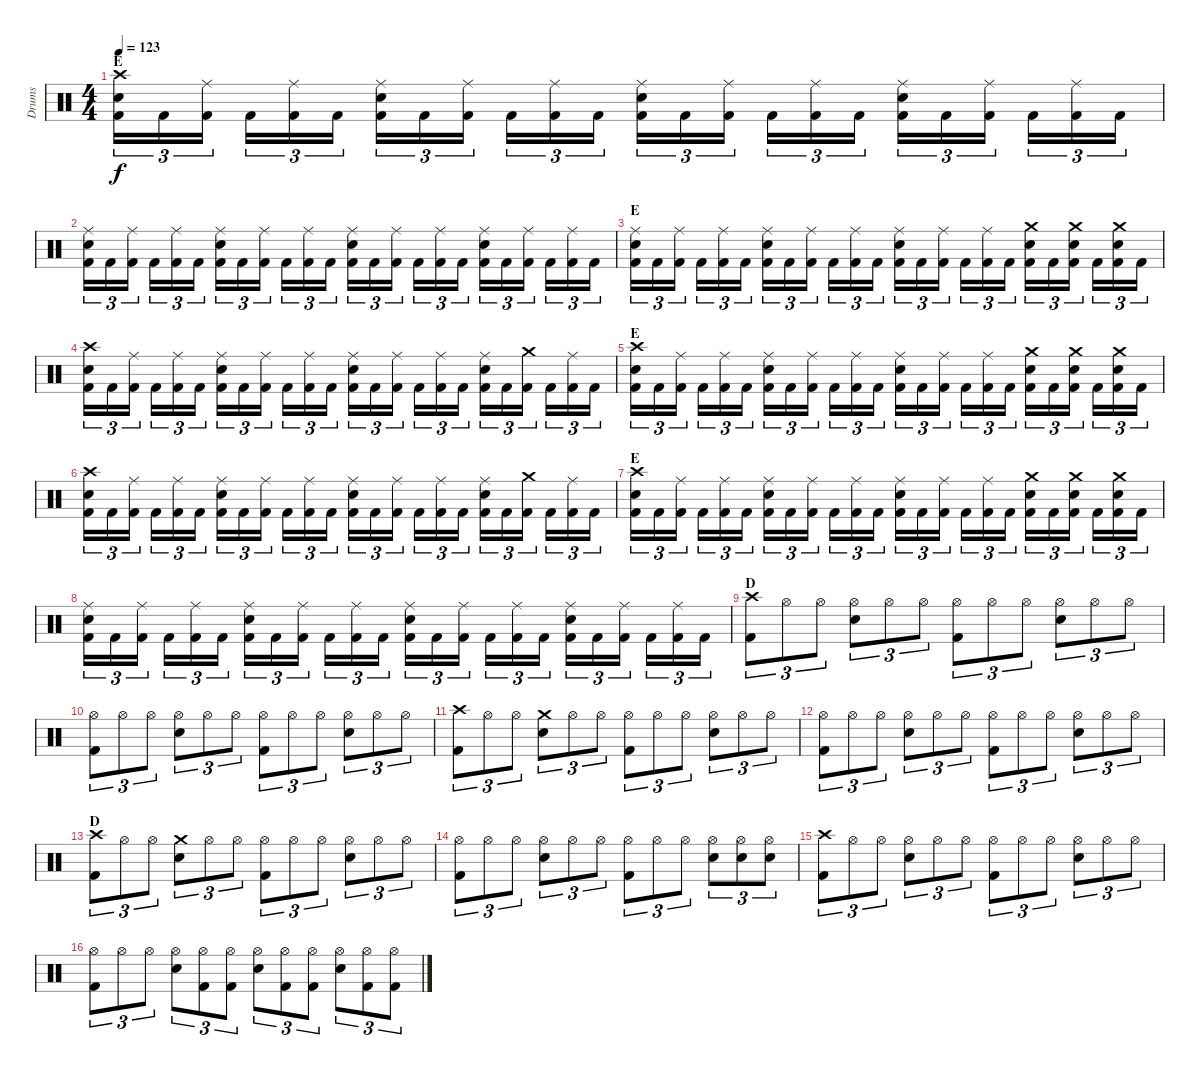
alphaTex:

\track ("Drums" "Drums") {instrument percussion}
\staff {score}
\articulation defaults
\ts (4 4)
\section ("" "E")
\tempo 123
\clef neutral
\ks c
("Crash high (hit)" "Snare (hit) 2" "Kick (hit) 2").16{tu (3 2) dy f} "Kick (hit) 2".16{tu (3 2)} ("Ride (middle)" "Kick (hit) 2").16{tu (3 2)} "Kick (hit) 2".16{tu (3 2)} ("Ride (middle)" "Kick (hit) 2").16{tu (3 2)} "Kick (hit) 2".16{tu (3 2)} ("Ride (middle)" "Snare (hit) 2" "Kick (hit) 2").16{tu (3 2)} "Kick (hit) 2".16{tu (3 2)} ("Ride (middle)" "Kick (hit) 2").16{tu (3 2)} "Kick (hit) 2".16{tu (3 2)} ("Ride (middle)" "Kick (hit) 2").16{tu (3 2)} "Kick (hit) 2".16{tu (3 2)} ("Ride (middle)" "Snare (hit) 2" "Kick (hit) 2").16{tu (3 2)} "Kick (hit) 2".16{tu (3 2)} ("Ride (middle)" "Kick (hit) 2").16{tu (3 2)} "Kick (hit) 2".16{tu (3 2)} ("Ride (middle)" "Kick (hit) 2").16{tu (3 2)} "Kick (hit) 2".16{tu (3 2)} ("Ride (middle)" "Snare (hit) 2" "Kick (hit) 2").16{tu (3 2)} "Kick (hit) 2".16{tu (3 2)} ("Ride (middle)" "Kick (hit) 2").16{tu (3 2)} "Kick (hit) 2".16{tu (3 2)} ("Ride (middle)" "Kick (hit) 2").16{tu (3 2)} "Kick (hit) 2".16{tu (3 2)} |
("Ride (middle)" "Snare (hit) 2" "Kick (hit) 2").16{tu (3 2)} "Kick (hit) 2".16{tu (3 2)} ("Ride (middle)" "Kick (hit) 2").16{tu (3 2)} "Kick (hit) 2".16{tu (3 2)} ("Ride (middle)" "Kick (hit) 2").16{tu (3 2)} "Kick (hit) 2".16{tu (3 2)} ("Ride (middle)" "Snare (hit) 2" "Kick (hit) 2").16{tu (3 2)} "Kick (hit) 2".16{tu (3 2)} ("Ride (middle)" "Kick (hit) 2").16{tu (3 2)} "Kick (hit) 2".16{tu (3 2)} ("Ride (middle)" "Kick (hit) 2").16{tu (3 2)} "Kick (hit) 2".16{tu (3 2)} ("Ride (middle)" "Snare (hit) 2" "Kick (hit) 2").16{tu (3 2)} "Kick (hit) 2".16{tu (3 2)} ("Ride (middle)" "Kick (hit) 2").16{tu (3 2)} "Kick (hit) 2".16{tu (3 2)} ("Ride (middle)" "Kick (hit) 2").16{tu (3 2)} "Kick (hit) 2".16{tu (3 2)} ("Ride (middle)" "Snare (hit) 2" "Kick (hit) 2").16{tu (3 2)} "Kick (hit) 2".16{tu (3 2)} ("Ride (middle)" "Kick (hit) 2").16{tu (3 2)} "Kick (hit) 2".16{tu (3 2)} ("Ride (middle)" "Kick (hit) 2").16{tu (3 2)} "Kick (hit) 2".16{tu (3 2)} |
\section ("" "E")
("Ride (middle)" "Snare (hit) 2" "Kick (hit) 2").16{tu (3 2)} "Kick (hit) 2".16{tu (3 2)} ("Ride (middle)" "Kick (hit) 2").16{tu (3 2)} "Kick (hit) 2".16{tu (3 2)} ("Ride (middle)" "Kick (hit) 2").16{tu (3 2)} "Kick (hit) 2".16{tu (3 2)} ("Ride (middle)" "Snare (hit) 2" "Kick (hit) 2").16{tu (3 2)} "Kick (hit) 2".16{tu (3 2)} ("Ride (middle)" "Kick (hit) 2").16{tu (3 2)} "Kick (hit) 2".16{tu (3 2)} ("Ride (middle)" "Kick (hit) 2").16{tu (3 2)} "Kick (hit) 2".16{tu (3 2)} ("Ride (middle)" "Snare (hit) 2" "Kick (hit) 2").16{tu (3 2)} "Kick (hit) 2".16{tu (3 2)} ("Ride (middle)" "Kick (hit) 2").16{tu (3 2)} "Kick (hit) 2".16{tu (3 2)} ("Ride (middle)" "Kick (hit) 2").16{tu (3 2)} "Kick (hit) 2".16{tu (3 2)} ("Crash medium (hit)" "Snare (hit) 2" "Kick (hit) 2").16{tu (3 2)} "Kick (hit) 2".16{tu (3 2)} ("Crash medium (hit)" "Snare (hit) 2" "Kick (hit) 2").16{tu (3 2)} "Kick (hit) 2".16{tu (3 2)} ("Crash medium (hit)" "Snare (hit) 2" "Kick (hit) 2").16{tu (3 2)} "Kick (hit) 2".16{tu (3 2)} |
("Crash high (hit)" "Snare (hit) 2" "Kick (hit) 2").16{tu (3 2)} "Kick (hit) 2".16{tu (3 2)} ("Ride (middle)" "Kick (hit) 2").16{tu (3 2)} "Kick (hit) 2".16{tu (3 2)} ("Ride (middle)" "Kick (hit) 2").16{tu (3 2)} "Kick (hit) 2".16{tu (3 2)} ("Ride (middle)" "Snare (hit) 2" "Kick (hit) 2").16{tu (3 2)} "Kick (hit) 2".16{tu (3 2)} ("Ride (middle)" "Kick (hit) 2").16{tu (3 2)} "Kick (hit) 2".16{tu (3 2)} ("Ride (middle)" "Kick (hit) 2").16{tu (3 2)} "Kick (hit) 2".16{tu (3 2)} ("Ride (middle)" "Snare (hit) 2" "Kick (hit) 2").16{tu (3 2)} "Kick (hit) 2".16{tu (3 2)} ("Ride (middle)" "Kick (hit) 2").16{tu (3 2)} "Kick (hit) 2".16{tu (3 2)} ("Ride (middle)" "Kick (hit) 2").16{tu (3 2)} "Kick (hit) 2".16{tu (3 2)} ("Ride (middle)" "Snare (hit) 2" "Kick (hit) 2").16{tu (3 2)} "Kick (hit) 2".16{tu (3 2)} ("Crash medium (hit)" "Kick (hit) 2").16{tu (3 2)} "Kick (hit) 2".16{tu (3 2)} ("Ride (middle)" "Kick (hit) 2").16{tu (3 2)} "Kick (hit) 2".16{tu (3 2)} |
\section ("" "E")
("Crash high (hit)" "Snare (hit) 2" "Kick (hit) 2").16{tu (3 2)} "Kick (hit) 2".16{tu (3 2)} ("Ride (middle)" "Kick (hit) 2").16{tu (3 2)} "Kick (hit) 2".16{tu (3 2)} ("Ride (middle)" "Kick (hit) 2").16{tu (3 2)} "Kick (hit) 2".16{tu (3 2)} ("Ride (middle)" "Snare (hit) 2" "Kick (hit) 2").16{tu (3 2)} "Kick (hit) 2".16{tu (3 2)} ("Ride (middle)" "Kick (hit) 2").16{tu (3 2)} "Kick (hit) 2".16{tu (3 2)} ("Ride (middle)" "Kick (hit) 2").16{tu (3 2)} "Kick (hit) 2".16{tu (3 2)} ("Ride (middle)" "Snare (hit) 2" "Kick (hit) 2").16{tu (3 2)} "Kick (hit) 2".16{tu (3 2)} ("Ride (middle)" "Kick (hit) 2").16{tu (3 2)} "Kick (hit) 2".16{tu (3 2)} ("Ride (middle)" "Kick (hit) 2").16{tu (3 2)} "Kick (hit) 2".16{tu (3 2)} ("Crash medium (hit)" "Snare (hit) 2" "Kick (hit) 2").16{tu (3 2)} "Kick (hit) 2".16{tu (3 2)} ("Crash medium (hit)" "Snare (hit) 2" "Kick (hit) 2").16{tu (3 2)} "Kick (hit) 2".16{tu (3 2)} ("Crash medium (hit)" "Snare (hit) 2" "Kick (hit) 2").16{tu (3 2)} "Kick (hit) 2".16{tu (3 2)} |
("Crash high (hit)" "Snare (hit) 2" "Kick (hit) 2").16{tu (3 2)} "Kick (hit) 2".16{tu (3 2)} ("Ride (middle)" "Kick (hit) 2").16{tu (3 2)} "Kick (hit) 2".16{tu (3 2)} ("Ride (middle)" "Kick (hit) 2").16{tu (3 2)} "Kick (hit) 2".16{tu (3 2)} ("Ride (middle)" "Snare (hit) 2" "Kick (hit) 2").16{tu (3 2)} "Kick (hit) 2".16{tu (3 2)} ("Ride (middle)" "Kick (hit) 2").16{tu (3 2)} "Kick (hit) 2".16{tu (3 2)} ("Ride (middle)" "Kick (hit) 2").16{tu (3 2)} "Kick (hit) 2".16{tu (3 2)} ("Ride (middle)" "Snare (hit) 2" "Kick (hit) 2").16{tu (3 2)} "Kick (hit) 2".16{tu (3 2)} ("Ride (middle)" "Kick (hit) 2").16{tu (3 2)} "Kick (hit) 2".16{tu (3 2)} ("Ride (middle)" "Kick (hit) 2").16{tu (3 2)} "Kick (hit) 2".16{tu (3 2)} ("Ride (middle)" "Snare (hit) 2" "Kick (hit) 2").16{tu (3 2)} "Kick (hit) 2".16{tu (3 2)} ("Crash medium (hit)" "Kick (hit) 2").16{tu (3 2)} "Kick (hit) 2".16{tu (3 2)} ("Ride (middle)" "Kick (hit) 2").16{tu (3 2)} "Kick (hit) 2".16{tu (3 2)} |
\section ("" "E")
("Crash high (hit)" "Snare (hit) 2" "Kick (hit) 2").16{tu (3 2)} "Kick (hit) 2".16{tu (3 2)} ("Ride (middle)" "Kick (hit) 2").16{tu (3 2)} "Kick (hit) 2".16{tu (3 2)} ("Ride (middle)" "Kick (hit) 2").16{tu (3 2)} "Kick (hit) 2".16{tu (3 2)} ("Ride (middle)" "Snare (hit) 2" "Kick (hit) 2").16{tu (3 2)} "Kick (hit) 2".16{tu (3 2)} ("Ride (middle)" "Kick (hit) 2").16{tu (3 2)} "Kick (hit) 2".16{tu (3 2)} ("Ride (middle)" "Kick (hit) 2").16{tu (3 2)} "Kick (hit) 2".16{tu (3 2)} ("Ride (middle)" "Snare (hit) 2" "Kick (hit) 2").16{tu (3 2)} "Kick (hit) 2".16{tu (3 2)} ("Ride (middle)" "Kick (hit) 2").16{tu (3 2)} "Kick (hit) 2".16{tu (3 2)} ("Ride (middle)" "Kick (hit) 2").16{tu (3 2)} "Kick (hit) 2".16{tu (3 2)} ("Crash medium (hit)" "Snare (hit) 2" "Kick (hit) 2").16{tu (3 2)} "Kick (hit) 2".16{tu (3 2)} ("Crash medium (hit)" "Snare (hit) 2" "Kick (hit) 2").16{tu (3 2)} "Kick (hit) 2".16{tu (3 2)} ("Crash medium (hit)" "Snare (hit) 2" "Kick (hit) 2").16{tu (3 2)} "Kick (hit) 2".16{tu (3 2)} |
("Ride (middle)" "Snare (hit) 2" "Kick (hit) 2").16{tu (3 2)} "Kick (hit) 2".16{tu (3 2)} ("Ride (middle)" "Kick (hit) 2").16{tu (3 2)} "Kick (hit) 2".16{tu (3 2)} ("Ride (middle)" "Kick (hit) 2").16{tu (3 2)} "Kick (hit) 2".16{tu (3 2)} ("Ride (middle)" "Snare (hit) 2" "Kick (hit) 2").16{tu (3 2)} "Kick (hit) 2".16{tu (3 2)} ("Ride (middle)" "Kick (hit) 2").16{tu (3 2)} "Kick (hit) 2".16{tu (3 2)} ("Ride (middle)" "Kick (hit) 2").16{tu (3 2)} "Kick (hit) 2".16{tu (3 2)} ("Ride (middle)" "Snare (hit) 2" "Kick (hit) 2").16{tu (3 2)} "Kick (hit) 2".16{tu (3 2)} ("Ride (middle)" "Kick (hit) 2").16{tu (3 2)} "Kick (hit) 2".16{tu (3 2)} ("Ride (middle)" "Kick (hit) 2").16{tu (3 2)} "Kick (hit) 2".16{tu (3 2)} ("Ride (middle)" "Snare (hit) 2" "Kick (hit) 2").16{tu (3 2)} "Kick (hit) 2".16{tu (3 2)} ("Ride (middle)" "Kick (hit) 2").16{tu (3 2)} "Kick (hit) 2".16{tu (3 2)} ("Ride (middle)" "Kick (hit) 2").16{tu (3 2)} "Kick (hit) 2".16{tu (3 2)} |
\section ("" "D")
("Crash high (hit)" "Kick (hit) 2").8{tu (3 2)} "Hi-Hat (open)".8{tu (3 2)} "Hi-Hat (open)".8{tu (3 2)} ("Hi-Hat (open)" "Snare (hit) 2").8{tu (3 2)} "Hi-Hat (open)".8{tu (3 2)} "Hi-Hat (open)".8{tu (3 2)} ("Hi-Hat (open)" "Kick (hit) 2").8{tu (3 2)} "Hi-Hat (open)".8{tu (3 2)} "Hi-Hat (open)".8{tu (3 2)} ("Hi-Hat (open)" "Snare (hit) 2").8{tu (3 2)} "Hi-Hat (open)".8{tu (3 2)} "Hi-Hat (open)".8{tu (3 2)} |
("Hi-Hat (open)" "Kick (hit) 2").8{tu (3 2)} "Hi-Hat (open)".8{tu (3 2)} "Hi-Hat (open)".8{tu (3 2)} ("Hi-Hat (open)" "Snare (hit) 2").8{tu (3 2)} "Hi-Hat (open)".8{tu (3 2)} "Hi-Hat (open)".8{tu (3 2)} ("Hi-Hat (open)" "Kick (hit) 2").8{tu (3 2)} "Hi-Hat (open)".8{tu (3 2)} "Hi-Hat (open)".8{tu (3 2)} ("Hi-Hat (open)" "Snare (hit) 2").8{tu (3 2)} "Hi-Hat (open)".8{tu (3 2)} "Hi-Hat (open)".8{tu (3 2)} |
("Crash high (hit)" "Kick (hit) 2").8{tu (3 2)} "Hi-Hat (open)".8{tu (3 2)} "Hi-Hat (open)".8{tu (3 2)} ("Crash medium (hit)" "Snare (hit) 2").8{tu (3 2)} "Hi-Hat (open)".8{tu (3 2)} "Hi-Hat (open)".8{tu (3 2)} ("Hi-Hat (open)" "Kick (hit) 2").8{tu (3 2)} "Hi-Hat (open)".8{tu (3 2)} "Hi-Hat (open)".8{tu (3 2)} ("Hi-Hat (open)" "Snare (hit) 2").8{tu (3 2)} "Hi-Hat (open)".8{tu (3 2)} "Hi-Hat (open)".8{tu (3 2)} |
("Hi-Hat (open)" "Kick (hit) 2").8{tu (3 2)} "Hi-Hat (open)".8{tu (3 2)} "Hi-Hat (open)".8{tu (3 2)} ("Hi-Hat (open)" "Snare (hit) 2").8{tu (3 2)} "Hi-Hat (open)".8{tu (3 2)} "Hi-Hat (open)".8{tu (3 2)} ("Hi-Hat (open)" "Kick (hit) 2").8{tu (3 2)} "Hi-Hat (open)".8{tu (3 2)} "Hi-Hat (open)".8{tu (3 2)} ("Hi-Hat (open)" "Snare (hit) 2").8{tu (3 2)} "Hi-Hat (open)".8{tu (3 2)} "Hi-Hat (open)".8{tu (3 2)} |
\section ("" "D")
("Crash high (hit)" "Kick (hit) 2").8{tu (3 2)} "Hi-Hat (open)".8{tu (3 2)} "Hi-Hat (open)".8{tu (3 2)} ("Crash medium (hit)" "Snare (hit) 2").8{tu (3 2)} "Hi-Hat (open)".8{tu (3 2)} "Hi-Hat (open)".8{tu (3 2)} ("Hi-Hat (open)" "Kick (hit) 2").8{tu (3 2)} "Hi-Hat (open)".8{tu (3 2)} "Hi-Hat (open)".8{tu (3 2)} ("Hi-Hat (open)" "Snare (hit) 2").8{tu (3 2)} "Hi-Hat (open)".8{tu (3 2)} "Hi-Hat (open)".8{tu (3 2)} |
("Hi-Hat (open)" "Kick (hit) 2").8{tu (3 2)} "Hi-Hat (open)".8{tu (3 2)} "Hi-Hat (open)".8{tu (3 2)} ("Hi-Hat (open)" "Snare (hit) 2").8{tu (3 2)} "Hi-Hat (open)".8{tu (3 2)} "Hi-Hat (open)".8{tu (3 2)} ("Hi-Hat (open)" "Kick (hit) 2").8{tu (3 2)} "Hi-Hat (open)".8{tu (3 2)} "Hi-Hat (open)".8{tu (3 2)} ("Hi-Hat (open)" "Snare (hit) 2").8{tu (3 2)} ("Hi-Hat (open)" "Snare (hit) 2").8{tu (3 2)} ("Hi-Hat (open)" "Snare (hit) 2").8{tu (3 2)} |
("Crash high (hit)" "Kick (hit) 2").8{tu (3 2)} "Hi-Hat (open)".8{tu (3 2)} "Hi-Hat (open)".8{tu (3 2)} ("Hi-Hat (open)" "Snare (hit) 2").8{tu (3 2)} "Hi-Hat (open)".8{tu (3 2)} "Hi-Hat (open)".8{tu (3 2)} ("Hi-Hat (open)" "Kick (hit) 2").8{tu (3 2)} "Hi-Hat (open)".8{tu (3 2)} "Hi-Hat (open)".8{tu (3 2)} ("Hi-Hat (open)" "Snare (hit) 2").8{tu (3 2)} "Hi-Hat (open)".8{tu (3 2)} "Hi-Hat (open)".8{tu (3 2)} |
("Hi-Hat (open)" "Kick (hit) 2").8{tu (3 2)} "Hi-Hat (open)".8{tu (3 2)} "Hi-Hat (open)".8{tu (3 2)} ("Hi-Hat (open)" "Snare (hit) 2").8{tu (3 2)} ("Hi-Hat (open)" "Kick (hit) 2").8{tu (3 2)} ("Hi-Hat (open)" "Kick (hit) 2").8{tu (3 2)} ("Hi-Hat (open)" "Snare (hit) 2").8{tu (3 2)} ("Hi-Hat (open)" "Kick (hit) 2").8{tu (3 2)} ("Hi-Hat (open)" "Kick (hit) 2").8{tu (3 2)} ("Hi-Hat (open)" "Snare (hit) 2").8{tu (3 2)} ("Hi-Hat (open)" "Kick (hit) 2").8{tu (3 2)} ("Hi-Hat (open)" "Kick (hit) 2").8{tu (3 2)}
